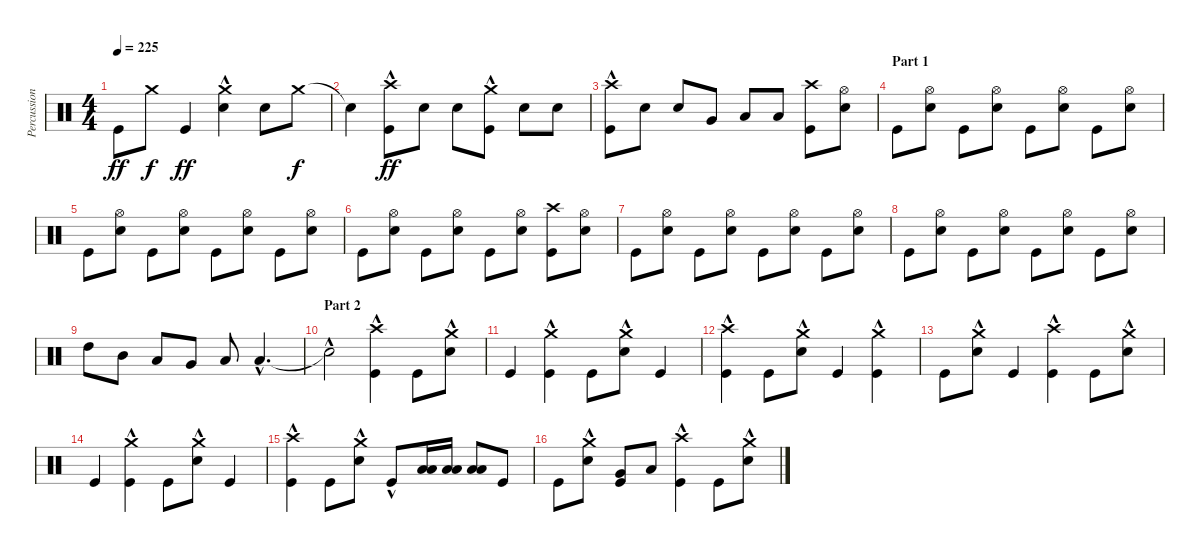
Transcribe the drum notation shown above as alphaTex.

\track ("Percussions" "Percussion") {instrument percussion}
\staff {score}
\articulation defaults
\ts (4 4)
\tempo 225
\clef neutral
\ks c "Kick (hit)".8{dy ff} "Crash medium (hit)".8{dy f} "Kick (hit)".4{dy ff}
("Electric Snare (hit)" "Crash medium (hit)"{hac}).4 "Electric Snare (hit)".8 "Crash medium (hit)".8{dy f} |
"Snare (hit)"{t}.4 ("Kick (hit)"{hac} "Crash high (hit)"{hac}).8{dy ff} "Electric Snare (hit)".8 "Electric Snare (hit)".8 ("Kick (hit)"{hac} "Crash medium (hit)"{hac}).8 "Electric Snare (hit)".8 "Electric Snare (hit)".8 |
("Kick (hit)"{hac} "Crash high (hit)"{hac}).8 "Electric Snare (hit)".8 "Electric Snare (hit)".8 "Very Low Tom (hit)".8 "Low Floor Tom (hit)".8 "Low Floor Tom (hit)".8 ("Kick (hit)" "Crash high (hit)").8 ("Electric Snare (hit)" "Hi-Hat (open)").8 |
\section ("" "Part 1")
"Kick (hit)".8 ("Electric Snare (hit)" "Hi-Hat (open)").8 "Kick (hit)".8 ("Electric Snare (hit)" "Hi-Hat (open)").8 "Kick (hit)".8 ("Electric Snare (hit)" "Hi-Hat (open)").8 "Kick (hit)".8 ("Electric Snare (hit)" "Hi-Hat (open)").8 |
"Kick (hit)".8 ("Electric Snare (hit)" "Hi-Hat (open)").8 "Kick (hit)".8 ("Electric Snare (hit)" "Hi-Hat (open)").8 "Kick (hit)".8 ("Electric Snare (hit)" "Hi-Hat (open)").8 "Kick (hit)".8 ("Electric Snare (hit)" "Hi-Hat (open)").8 |
"Kick (hit)".8 ("Electric Snare (hit)" "Hi-Hat (open)").8 "Kick (hit)".8 ("Electric Snare (hit)" "Hi-Hat (open)").8 "Kick (hit)".8 ("Electric Snare (hit)" "Hi-Hat (open)").8 ("Kick (hit)" "Crash high (hit)").8 ("Electric Snare (hit)" "Hi-Hat (open)").8 |
"Kick (hit)".8 ("Electric Snare (hit)" "Hi-Hat (open)").8 "Kick (hit)".8 ("Electric Snare (hit)" "Hi-Hat (open)").8 "Kick (hit)".8 ("Electric Snare (hit)" "Hi-Hat (open)").8 "Kick (hit)".8 ("Electric Snare (hit)" "Hi-Hat (open)").8 |
"Kick (hit)".8 ("Electric Snare (hit)" "Hi-Hat (open)").8 "Kick (hit)".8 ("Electric Snare (hit)" "Hi-Hat (open)").8 "Kick (hit)".8 ("Electric Snare (hit)" "Hi-Hat (open)").8 "Kick (hit)".8 ("Electric Snare (hit)" "Hi-Hat (open)").8 |
"High Tom (hit)".8 "Mid Tom (hit)".8 "Low Tom (hit)".8 "Very Low Tom (hit)".8 "Low Floor Tom (hit)".8 "Low Floor Tom (hit)"{hac}.4{d} |
\section ("" "Part 2")
"Snare (hit)"{hac t}.2 ("Kick (hit)" "Crash high (hit)"{hac}).4 "Kick (hit)".8 ("Electric Snare (hit)"{hac} "Crash medium (hit)"{hac}).8 |
"Kick (hit)".4 ("Kick (hit)" "Crash medium (hit)"{hac}).4 "Kick (hit)".8 ("Electric Snare (hit)"{hac} "Crash medium (hit)"{hac}).8 "Kick (hit)".4 |
("Kick (hit)" "Crash high (hit)"{hac}).4 "Kick (hit)".8 ("Electric Snare (hit)"{hac} "Crash medium (hit)"{hac}).8 "Kick (hit)".4 ("Kick (hit)" "Crash medium (hit)"{hac}).4 |
"Kick (hit)".8 ("Electric Snare (hit)"{hac} "Crash medium (hit)"{hac}).8 "Kick (hit)".4 ("Kick (hit)" "Crash high (hit)"{hac}).4 "Kick (hit)".8 ("Electric Snare (hit)"{hac} "Crash medium (hit)"{hac}).8 |
"Kick (hit)".4 ("Kick (hit)" "Crash medium (hit)"{hac}).4 "Kick (hit)".8 ("Electric Snare (hit)"{hac} "Crash medium (hit)"{hac}).8 "Kick (hit)".4 |
("Kick (hit)" "Crash high (hit)"{hac}).4 "Kick (hit)".8 ("Electric Snare (hit)" "Crash medium (hit)"{hac}).8 "Kick (hit)"{hac}.8 ("Low Floor Tom (hit)" "Low Tom (hit)").16 ("Low Floor Tom (hit)" "Low Tom (hit)").16 ("Low Floor Tom (hit)" "Low Tom (hit)").8 "Kick (hit)".8 |
"Kick (hit)".8 ("Electric Snare (hit)" "Crash medium (hit)"{hac}).8 ("Kick (hit)" "Very Low Tom (hit)").8 "Low Floor Tom (hit)".8 ("Kick (hit)" "Crash high (hit)"{hac}).4 "Kick (hit)".8 ("Electric Snare (hit)"{hac} "Crash medium (hit)"{hac}).8
